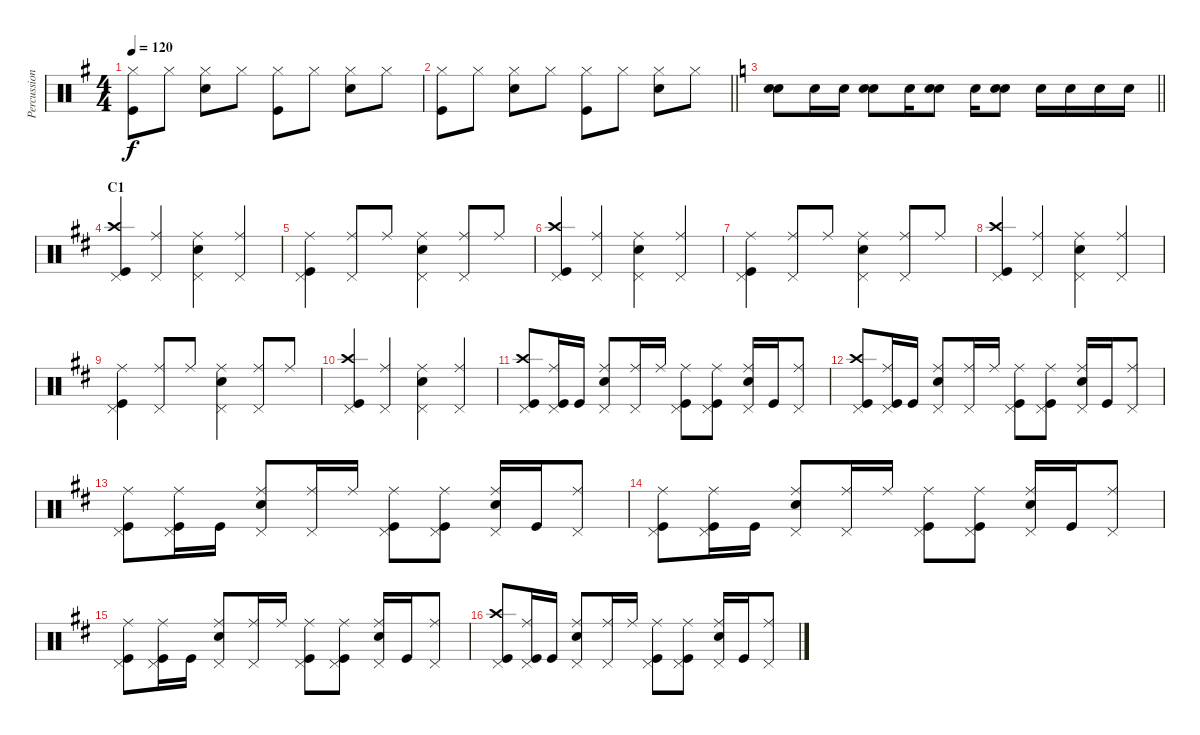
\track ("Percussion" "Percussion") {instrument percussion}
\staff {score}
\articulation defaults
\ts (4 4)
\tempo 120
\clef neutral
\ks eminor
("Hi-Hat (closed)" "Kick (hit)").8{dy f} "Hi-Hat (closed)".8 ("Hi-Hat (closed)" "Snare (hit) 2").8 "Hi-Hat (closed)".8 ("Hi-Hat (closed)" "Kick (hit)").8 "Hi-Hat (closed)".8 ("Hi-Hat (closed)" "Snare (hit) 2").8 "Hi-Hat (closed)".8 |
\barLineRight lightlight
("Hi-Hat (closed)" "Kick (hit)").8 "Hi-Hat (closed)".8 ("Hi-Hat (closed)" "Snare (hit) 2").8 "Hi-Hat (closed)".8 ("Hi-Hat (closed)" "Kick (hit)").8 "Hi-Hat (closed)".8 ("Hi-Hat (closed)" "Snare (hit) 2").8 "Hi-Hat (closed)".8 |
\barLineRight lightlight
\ks c
("Snare (hit) 2" "Electric Snare (hit)").8 "Snare (hit) 2".16 "Snare (hit) 2".16 ("Snare (hit) 2" "Electric Snare (hit)").8 "Snare (hit) 2".16 ("Snare (hit) 2" "Electric Snare (hit)").8 "Snare (hit) 2".16 ("Electric Snare (hit)" "Snare (hit) 2").8 "Snare (hit) 2".16 "Snare (hit) 2".16 "Snare (hit) 2".16 "Snare (hit) 2".16 |
\section ("" "C1")
\ks bminor
("Crash high (hit)" "Kick (hit)" "Pedal Hi-Hat (hit)").4 ("Ride (middle)" "Pedal Hi-Hat (hit)").4 ("Snare (hit) 2" "Ride (middle)" "Pedal Hi-Hat (hit)").4 ("Ride (middle)" "Pedal Hi-Hat (hit)").4 |
("Kick (hit)" "Ride (middle)" "Pedal Hi-Hat (hit)").4 ("Ride (middle)" "Pedal Hi-Hat (hit)").8 "Ride (middle)".8 ("Snare (hit) 2" "Ride (middle)" "Pedal Hi-Hat (hit)").4 ("Ride (middle)" "Pedal Hi-Hat (hit)").8 "Ride (middle)".8 |
("Crash high (hit)" "Kick (hit)" "Pedal Hi-Hat (hit)").4 ("Ride (middle)" "Pedal Hi-Hat (hit)").4 ("Snare (hit) 2" "Ride (middle)" "Pedal Hi-Hat (hit)").4 ("Ride (middle)" "Pedal Hi-Hat (hit)").4 |
("Kick (hit)" "Ride (middle)" "Pedal Hi-Hat (hit)").4 ("Ride (middle)" "Pedal Hi-Hat (hit)").8 "Ride (middle)".8 ("Snare (hit) 2" "Ride (middle)" "Pedal Hi-Hat (hit)").4 ("Ride (middle)" "Pedal Hi-Hat (hit)").8 "Ride (middle)".8 |
("Crash high (hit)" "Kick (hit)" "Pedal Hi-Hat (hit)").4 ("Ride (middle)" "Pedal Hi-Hat (hit)").4 ("Snare (hit) 2" "Ride (middle)" "Pedal Hi-Hat (hit)").4 ("Ride (middle)" "Pedal Hi-Hat (hit)").4 |
("Kick (hit)" "Ride (middle)" "Pedal Hi-Hat (hit)").4 ("Ride (middle)" "Pedal Hi-Hat (hit)").8 "Ride (middle)".8 ("Snare (hit) 2" "Ride (middle)" "Pedal Hi-Hat (hit)").4 ("Ride (middle)" "Pedal Hi-Hat (hit)").8 "Ride (middle)".8 |
("Crash high (hit)" "Kick (hit)" "Pedal Hi-Hat (hit)").4 ("Ride (middle)" "Pedal Hi-Hat (hit)").4 ("Snare (hit) 2" "Ride (middle)" "Pedal Hi-Hat (hit)").4 ("Ride (middle)" "Pedal Hi-Hat (hit)").4 |
\ks d
("Kick (hit)" "Crash high (hit)" "Pedal Hi-Hat (hit)").8 ("Kick (hit)" "Ride (middle)" "Pedal Hi-Hat (hit)").16 "Kick (hit)".16 ("Snare (hit) 2" "Ride (middle)" "Pedal Hi-Hat (hit)").8 ("Ride (middle)" "Pedal Hi-Hat (hit)").16 "Ride (middle)".16 ("Kick (hit)" "Ride (middle)" "Pedal Hi-Hat (hit)").8 ("Ride (middle)" "Kick (hit)" "Pedal Hi-Hat (hit)").8 ("Snare (hit) 2" "Ride (middle)" "Pedal Hi-Hat (hit)").16 "Kick (hit)".16 ("Ride (middle)" "Pedal Hi-Hat (hit)").8 |
("Kick (hit)" "Crash high (hit)" "Pedal Hi-Hat (hit)").8 ("Kick (hit)" "Ride (middle)" "Pedal Hi-Hat (hit)").16 "Kick (hit)".16 ("Snare (hit) 2" "Ride (middle)" "Pedal Hi-Hat (hit)").8 ("Ride (middle)" "Pedal Hi-Hat (hit)").16 "Ride (middle)".16 ("Kick (hit)" "Ride (middle)" "Pedal Hi-Hat (hit)").8 ("Ride (middle)" "Kick (hit)" "Pedal Hi-Hat (hit)").8 ("Snare (hit) 2" "Ride (middle)" "Pedal Hi-Hat (hit)").16 "Kick (hit)".16 ("Ride (middle)" "Pedal Hi-Hat (hit)").8 |
("Kick (hit)" "Ride (middle)" "Pedal Hi-Hat (hit)").8 ("Kick (hit)" "Ride (middle)" "Pedal Hi-Hat (hit)").16 "Kick (hit)".16 ("Snare (hit) 2" "Ride (middle)" "Pedal Hi-Hat (hit)").8 ("Ride (middle)" "Pedal Hi-Hat (hit)").16 "Ride (middle)".16 ("Kick (hit)" "Ride (middle)" "Pedal Hi-Hat (hit)").8 ("Ride (middle)" "Kick (hit)" "Pedal Hi-Hat (hit)").8 ("Snare (hit) 2" "Ride (middle)" "Pedal Hi-Hat (hit)").16 "Kick (hit)".16 ("Ride (middle)" "Pedal Hi-Hat (hit)").8 |
("Kick (hit)" "Ride (middle)" "Pedal Hi-Hat (hit)").8 ("Kick (hit)" "Ride (middle)" "Pedal Hi-Hat (hit)").16 "Kick (hit)".16 ("Snare (hit) 2" "Ride (middle)" "Pedal Hi-Hat (hit)").8 ("Ride (middle)" "Pedal Hi-Hat (hit)").16 "Ride (middle)".16 ("Kick (hit)" "Ride (middle)" "Pedal Hi-Hat (hit)").8 ("Ride (middle)" "Kick (hit)" "Pedal Hi-Hat (hit)").8 ("Snare (hit) 2" "Ride (middle)" "Pedal Hi-Hat (hit)").16 "Kick (hit)".16 ("Ride (middle)" "Pedal Hi-Hat (hit)").8 |
("Kick (hit)" "Ride (middle)" "Pedal Hi-Hat (hit)").8 ("Kick (hit)" "Ride (middle)" "Pedal Hi-Hat (hit)").16 "Kick (hit)".16 ("Snare (hit) 2" "Ride (middle)" "Pedal Hi-Hat (hit)").8 ("Ride (middle)" "Pedal Hi-Hat (hit)").16 "Ride (middle)".16 ("Kick (hit)" "Ride (middle)" "Pedal Hi-Hat (hit)").8 ("Ride (middle)" "Kick (hit)" "Pedal Hi-Hat (hit)").8 ("Snare (hit) 2" "Ride (middle)" "Pedal Hi-Hat (hit)").16 "Kick (hit)".16 ("Ride (middle)" "Pedal Hi-Hat (hit)").8 |
("Kick (hit)" "Crash high (hit)" "Pedal Hi-Hat (hit)").8 ("Kick (hit)" "Ride (middle)" "Pedal Hi-Hat (hit)").16 "Kick (hit)".16 ("Snare (hit) 2" "Ride (middle)" "Pedal Hi-Hat (hit)").8 ("Ride (middle)" "Pedal Hi-Hat (hit)").16 "Ride (middle)".16 ("Kick (hit)" "Ride (middle)" "Pedal Hi-Hat (hit)").8 ("Ride (middle)" "Kick (hit)" "Pedal Hi-Hat (hit)").8 ("Snare (hit) 2" "Ride (middle)" "Pedal Hi-Hat (hit)").16 "Kick (hit)".16 ("Ride (middle)" "Pedal Hi-Hat (hit)").8
